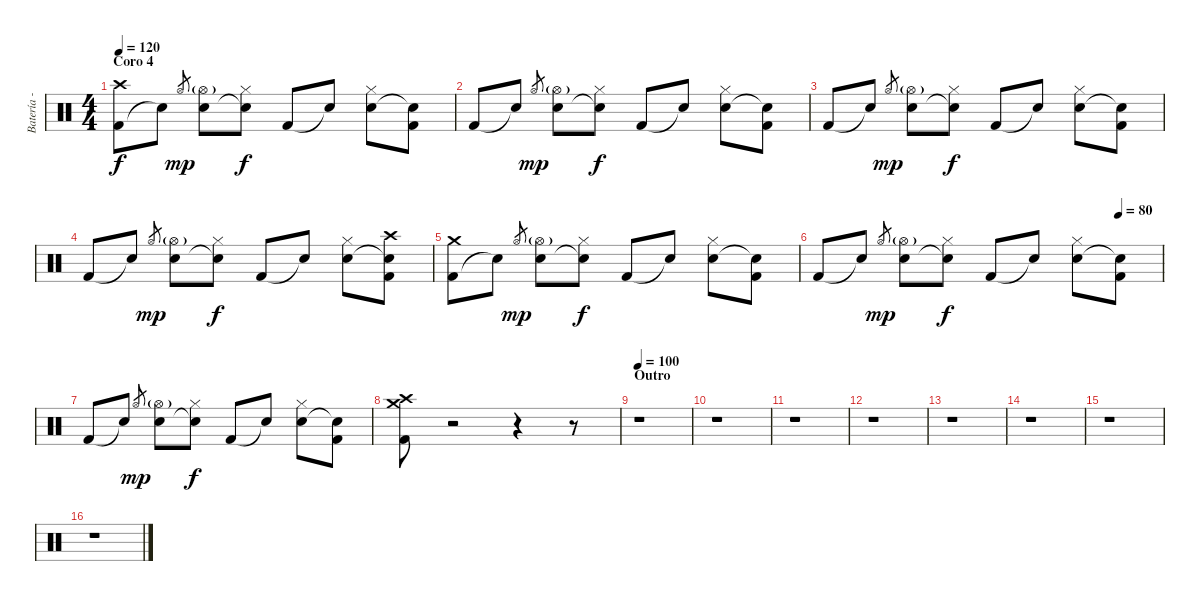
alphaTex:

\track ("Batería - Txus" "Batería - ") {instrument percussion}
\staff {score}
\articulation defaults
\ts (4 4)
\section ("" "Coro 4")
\tempo 120
\clef neutral
\ks c
("Kick (hit) 2" "Crash high (hit)").8{dy f} "Snare (hit)"{t}.8 "Hi-Hat (open)".8{gr dy mp} ("Snare (hit) 2" "Hi-Hat (open)"{g}).8 ("Snare (hit)"{t} "Hi-Hat (closed)").8{dy f} "Kick (hit) 2".8 "Snare (hit)"{t}.8 ("Snare (hit) 2" "Hi-Hat (closed)").8 ("Snare (hit)"{t} "Kick (hit) 2").8 |
"Kick (hit) 2".8 "Snare (hit)"{t}.8 "Hi-Hat (open)".8{gr dy mp} ("Snare (hit) 2" "Hi-Hat (open)"{g}).8 ("Snare (hit)"{t} "Hi-Hat (closed)").8{dy f} "Kick (hit) 2".8 "Snare (hit)"{t}.8 ("Snare (hit) 2" "Hi-Hat (closed)").8 ("Snare (hit)"{t} "Kick (hit) 2").8 |
"Kick (hit) 2".8 "Snare (hit)"{t}.8 "Hi-Hat (open)".8{gr dy mp} ("Snare (hit) 2" "Hi-Hat (open)"{g}).8 ("Snare (hit)"{t} "Hi-Hat (closed)").8{dy f} "Kick (hit) 2".8 "Snare (hit)"{t}.8 ("Snare (hit) 2" "Hi-Hat (closed)").8 ("Snare (hit)"{t} "Kick (hit) 2").8 |
"Kick (hit) 2".8 "Snare (hit)"{t}.8 "Hi-Hat (open)".8{gr dy mp} ("Snare (hit) 2" "Hi-Hat (open)"{g}).8 ("Snare (hit)"{t} "Hi-Hat (closed)").8{dy f} "Kick (hit) 2".8 "Snare (hit)"{t}.8 ("Snare (hit) 2" "Hi-Hat (closed)").8 ("Snare (hit)"{t} "Kick (hit) 2" "Crash high (hit)").8 |
("Kick (hit) 2" "Crash medium (hit)").8 "Snare (hit)"{t}.8 "Hi-Hat (open)".8{gr dy mp} ("Snare (hit) 2" "Hi-Hat (open)"{g}).8 ("Snare (hit)"{t} "Hi-Hat (closed)").8{dy f} "Kick (hit) 2".8 "Snare (hit)"{t}.8 ("Snare (hit) 2" "Hi-Hat (closed)").8 ("Snare (hit)"{t} "Kick (hit) 2").8 |
\tempo (80 0.875)
"Kick (hit) 2".8 "Snare (hit)"{t}.8 "Hi-Hat (open)".8{gr dy mp} ("Snare (hit) 2" "Hi-Hat (open)"{g}).8 ("Snare (hit)"{t} "Hi-Hat (closed)").8{dy f} "Kick (hit) 2".8 "Snare (hit)"{t}.8 ("Snare (hit) 2" "Hi-Hat (closed)").8 ("Snare (hit)"{t} "Kick (hit) 2").8 |
"Kick (hit) 2".8 "Snare (hit)"{t}.8 "Hi-Hat (open)".8{gr dy mp} ("Snare (hit) 2" "Hi-Hat (open)"{g}).8 ("Snare (hit)"{t} "Hi-Hat (closed)").8{dy f} "Kick (hit) 2".8 "Snare (hit)"{t}.8 ("Snare (hit) 2" "Hi-Hat (closed)").8 ("Snare (hit)"{t} "Kick (hit) 2").8 |
("Crash high (hit)" "Kick (hit) 2" "Crash medium (hit)").8 r.2 r.4 r.8 |
\section ("" "Outro")
\tempo 100
r.1 |
r.1 |
r.1 |
r.1 |
r.1 |
r.1 |
r.1 |
r.1
